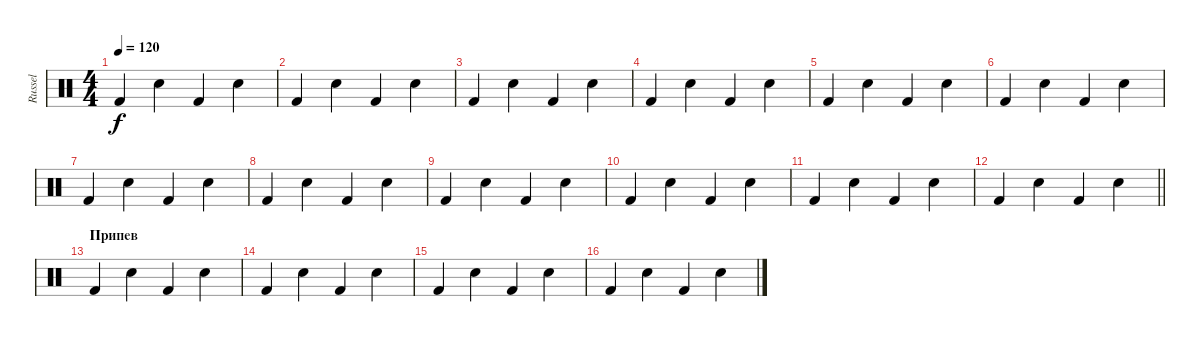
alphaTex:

\track ("Russel" "Russel") {instrument percussion}
\staff {score}
\articulation defaults
\ts (4 4)
\tempo 120
\clef neutral
\ks c "Kick (hit) 2".4{dy f} "Hand Clap (hit)".4 "Kick (hit) 2".4 "Hand Clap (hit)".4
|
"Kick (hit) 2".4 "Hand Clap (hit)".4 "Kick (hit) 2".4 "Hand Clap (hit)".4 |
"Kick (hit) 2".4 "Hand Clap (hit)".4 "Kick (hit) 2".4 "Hand Clap (hit)".4 |
"Kick (hit) 2".4 "Hand Clap (hit)".4 "Kick (hit) 2".4 "Hand Clap (hit)".4 |
"Kick (hit) 2".4 "Hand Clap (hit)".4 "Kick (hit) 2".4 "Hand Clap (hit)".4 |
"Kick (hit) 2".4 "Hand Clap (hit)".4 "Kick (hit) 2".4 "Hand Clap (hit)".4 |
"Kick (hit) 2".4 "Hand Clap (hit)".4 "Kick (hit) 2".4 "Hand Clap (hit)".4 |
"Kick (hit) 2".4 "Hand Clap (hit)".4 "Kick (hit) 2".4 "Hand Clap (hit)".4 |
"Kick (hit) 2".4 "Hand Clap (hit)".4 "Kick (hit) 2".4 "Hand Clap (hit)".4 |
"Kick (hit) 2".4 "Hand Clap (hit)".4 "Kick (hit) 2".4 "Hand Clap (hit)".4 |
"Kick (hit) 2".4 "Hand Clap (hit)".4 "Kick (hit) 2".4 "Hand Clap (hit)".4 |
\barLineRight lightlight "Kick (hit) 2".4 "Hand Clap (hit)".4 "Kick (hit) 2".4 "Hand Clap (hit)".4
|
\section ("" "Припев")
"Kick (hit) 2".4 "Hand Clap (hit)".4 "Kick (hit) 2".4 "Hand Clap (hit)".4 |
"Kick (hit) 2".4 "Hand Clap (hit)".4 "Kick (hit) 2".4 "Hand Clap (hit)".4 |
"Kick (hit) 2".4 "Hand Clap (hit)".4 "Kick (hit) 2".4 "Hand Clap (hit)".4 |
"Kick (hit) 2".4 "Hand Clap (hit)".4 "Kick (hit) 2".4 "Hand Clap (hit)".4
